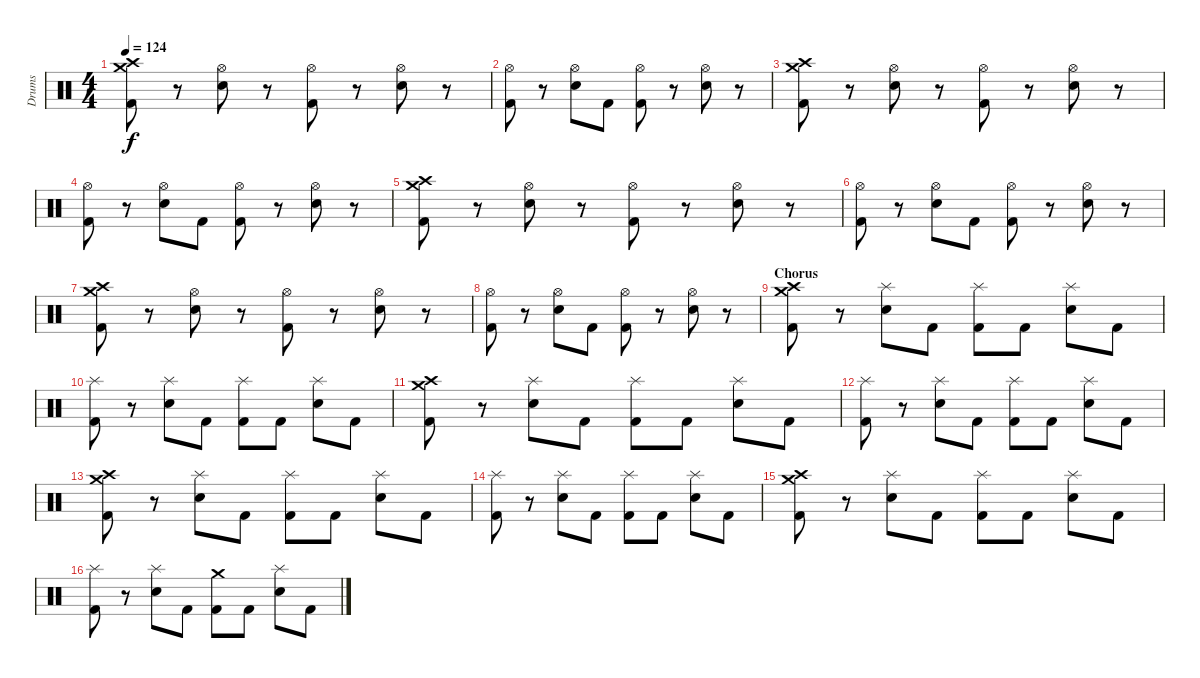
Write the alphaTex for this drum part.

\track ("Drums" "Drums") {instrument percussion}
\staff {score}
\articulation defaults
\ts (4 4)
\tempo 124
\clef neutral
\ks c
("Crash medium (hit)" "Crash high (hit)" "Kick (hit) 2").8{dy f} r.8 ("Hi-Hat (open)" "Snare (hit) 2").8 r.8 ("Hi-Hat (open)" "Kick (hit) 2").8 r.8 ("Hi-Hat (open)" "Snare (hit) 2").8 r.8 |
("Hi-Hat (open)" "Kick (hit) 2").8 r.8 ("Hi-Hat (open)" "Snare (hit) 2").8 "Kick (hit) 2".8 ("Hi-Hat (open)" "Kick (hit) 2").8 r.8 ("Hi-Hat (open)" "Snare (hit) 2").8 r.8 |
("Crash medium (hit)" "Crash high (hit)" "Kick (hit) 2").8 r.8 ("Hi-Hat (open)" "Snare (hit) 2").8 r.8 ("Hi-Hat (open)" "Kick (hit) 2").8 r.8 ("Hi-Hat (open)" "Snare (hit) 2").8 r.8 |
("Hi-Hat (open)" "Kick (hit) 2").8 r.8 ("Hi-Hat (open)" "Snare (hit) 2").8 "Kick (hit) 2".8 ("Hi-Hat (open)" "Kick (hit) 2").8 r.8 ("Hi-Hat (open)" "Snare (hit) 2").8 r.8 |
("Crash medium (hit)" "Crash high (hit)" "Kick (hit) 2").8 r.8 ("Hi-Hat (open)" "Snare (hit) 2").8 r.8 ("Hi-Hat (open)" "Kick (hit) 2").8 r.8 ("Hi-Hat (open)" "Snare (hit) 2").8 r.8 |
("Hi-Hat (open)" "Kick (hit) 2").8 r.8 ("Hi-Hat (open)" "Snare (hit) 2").8 "Kick (hit) 2".8 ("Hi-Hat (open)" "Kick (hit) 2").8 r.8 ("Hi-Hat (open)" "Snare (hit) 2").8 r.8 |
("Crash medium (hit)" "Crash high (hit)" "Kick (hit) 2").8 r.8 ("Hi-Hat (open)" "Snare (hit) 2").8 r.8 ("Hi-Hat (open)" "Kick (hit) 2").8 r.8 ("Hi-Hat (open)" "Snare (hit) 2").8 r.8 |
("Hi-Hat (open)" "Kick (hit) 2").8 r.8 ("Hi-Hat (open)" "Snare (hit) 2").8 "Kick (hit) 2".8 ("Hi-Hat (open)" "Kick (hit) 2").8 r.8 ("Hi-Hat (open)" "Snare (hit) 2").8 r.8 |
\section ("" "Chorus")
("Crash medium (hit)" "Crash high (hit)" "Kick (hit) 2").8 r.8 ("Splash (hit)" "Snare (hit) 2").8 "Kick (hit) 2".8 ("Splash (hit)" "Kick (hit) 2").8 "Kick (hit) 2".8 ("Splash (hit)" "Snare (hit) 2").8 "Kick (hit) 2".8 |
("Splash (hit)" "Kick (hit) 2").8 r.8 ("Splash (hit)" "Snare (hit) 2").8 "Kick (hit) 2".8 ("Splash (hit)" "Kick (hit) 2").8 "Kick (hit) 2".8 ("Splash (hit)" "Snare (hit) 2").8 "Kick (hit) 2".8 |
("Crash medium (hit)" "Crash high (hit)" "Kick (hit) 2").8 r.8 ("Splash (hit)" "Snare (hit) 2").8 "Kick (hit) 2".8 ("Splash (hit)" "Kick (hit) 2").8 "Kick (hit) 2".8 ("Splash (hit)" "Snare (hit) 2").8 "Kick (hit) 2".8 |
("Splash (hit)" "Kick (hit) 2").8 r.8 ("Splash (hit)" "Snare (hit) 2").8 "Kick (hit) 2".8 ("Splash (hit)" "Kick (hit) 2").8 "Kick (hit) 2".8 ("Splash (hit)" "Snare (hit) 2").8 "Kick (hit) 2".8 |
("Crash medium (hit)" "Crash high (hit)" "Kick (hit) 2").8 r.8 ("Splash (hit)" "Snare (hit) 2").8 "Kick (hit) 2".8 ("Splash (hit)" "Kick (hit) 2").8 "Kick (hit) 2".8 ("Splash (hit)" "Snare (hit) 2").8 "Kick (hit) 2".8 |
("Splash (hit)" "Kick (hit) 2").8 r.8 ("Splash (hit)" "Snare (hit) 2").8 "Kick (hit) 2".8 ("Splash (hit)" "Kick (hit) 2").8 "Kick (hit) 2".8 ("Splash (hit)" "Snare (hit) 2").8 "Kick (hit) 2".8 |
("Crash medium (hit)" "Crash high (hit)" "Kick (hit) 2").8 r.8 ("Splash (hit)" "Snare (hit) 2").8 "Kick (hit) 2".8 ("Splash (hit)" "Kick (hit) 2").8 "Kick (hit) 2".8 ("Splash (hit)" "Snare (hit) 2").8 "Kick (hit) 2".8 |
("Splash (hit)" "Kick (hit) 2").8 r.8 ("Splash (hit)" "Snare (hit) 2").8 "Kick (hit) 2".8 ("Crash medium (hit)" "Kick (hit) 2").8 "Kick (hit) 2".8 ("Splash (hit)" "Snare (hit) 2").8 "Kick (hit) 2".8
